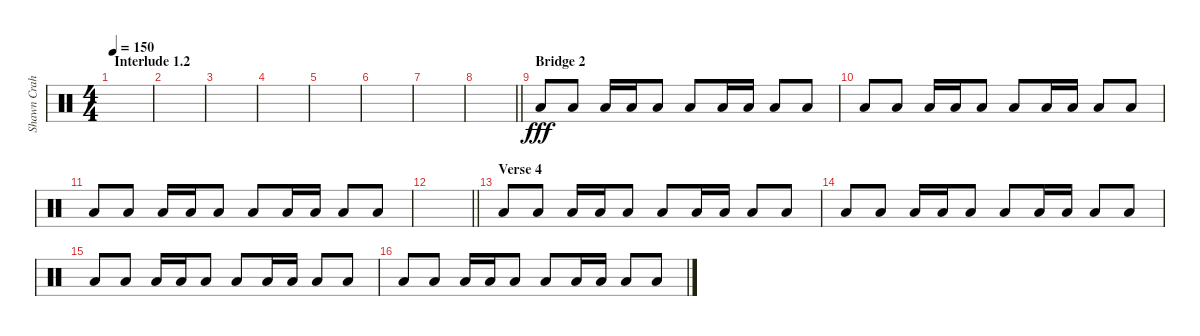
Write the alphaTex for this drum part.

\track ("Shawn Crahan" "Shawn Crah") {instrument percussion}
\staff {score}
\articulation defaults
\ts (4 4)
\section ("" "Interlude 1.2")
\tempo 150
\clef neutral
\ks c
|
|
|
|
|
|
|
\barLineRight lightlight
|
\section ("" "Bridge 2")
"Low Floor Tom (hit)".8{dy fff} "Low Floor Tom (hit)".8 "Low Floor Tom (hit)".16 "Low Floor Tom (hit)".16 "Low Floor Tom (hit)".8 "Low Floor Tom (hit)".8 "Low Floor Tom (hit)".16 "Low Floor Tom (hit)".16 "Low Floor Tom (hit)".8 "Low Floor Tom (hit)".8 |
"Low Floor Tom (hit)".8 "Low Floor Tom (hit)".8 "Low Floor Tom (hit)".16 "Low Floor Tom (hit)".16 "Low Floor Tom (hit)".8 "Low Floor Tom (hit)".8 "Low Floor Tom (hit)".16 "Low Floor Tom (hit)".16 "Low Floor Tom (hit)".8 "Low Floor Tom (hit)".8 |
"Low Floor Tom (hit)".8 "Low Floor Tom (hit)".8 "Low Floor Tom (hit)".16 "Low Floor Tom (hit)".16 "Low Floor Tom (hit)".8 "Low Floor Tom (hit)".8 "Low Floor Tom (hit)".16 "Low Floor Tom (hit)".16 "Low Floor Tom (hit)".8 "Low Floor Tom (hit)".8 |
\barLineRight lightlight
|
\section ("" "Verse 4")
"Low Floor Tom (hit)".8 "Low Floor Tom (hit)".8 "Low Floor Tom (hit)".16 "Low Floor Tom (hit)".16 "Low Floor Tom (hit)".8 "Low Floor Tom (hit)".8 "Low Floor Tom (hit)".16 "Low Floor Tom (hit)".16 "Low Floor Tom (hit)".8 "Low Floor Tom (hit)".8 |
"Low Floor Tom (hit)".8 "Low Floor Tom (hit)".8 "Low Floor Tom (hit)".16 "Low Floor Tom (hit)".16 "Low Floor Tom (hit)".8 "Low Floor Tom (hit)".8 "Low Floor Tom (hit)".16 "Low Floor Tom (hit)".16 "Low Floor Tom (hit)".8 "Low Floor Tom (hit)".8 |
"Low Floor Tom (hit)".8 "Low Floor Tom (hit)".8 "Low Floor Tom (hit)".16 "Low Floor Tom (hit)".16 "Low Floor Tom (hit)".8 "Low Floor Tom (hit)".8 "Low Floor Tom (hit)".16 "Low Floor Tom (hit)".16 "Low Floor Tom (hit)".8 "Low Floor Tom (hit)".8 |
"Low Floor Tom (hit)".8 "Low Floor Tom (hit)".8 "Low Floor Tom (hit)".16 "Low Floor Tom (hit)".16 "Low Floor Tom (hit)".8 "Low Floor Tom (hit)".8 "Low Floor Tom (hit)".16 "Low Floor Tom (hit)".16 "Low Floor Tom (hit)".8 "Low Floor Tom (hit)".8
